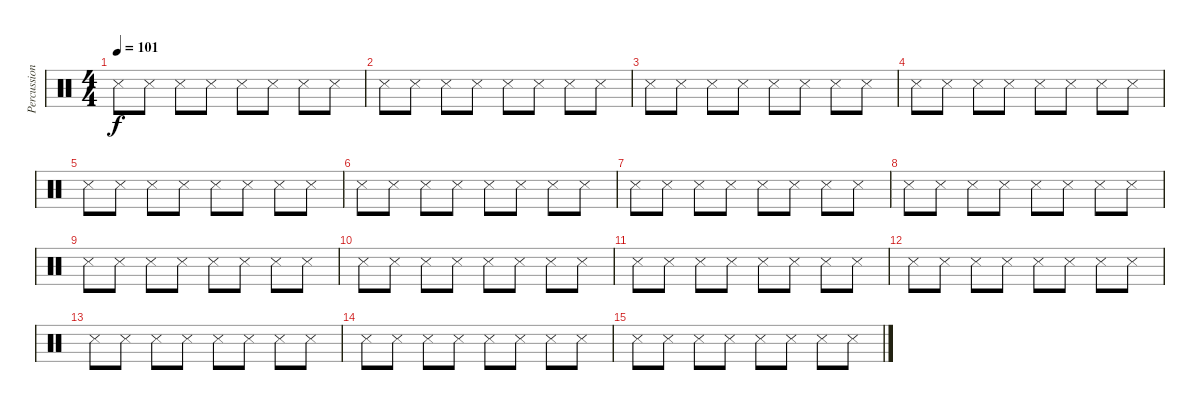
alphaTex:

\track ("Percussions" "Percussion") {instrument percussion}
\staff {score}
\articulation defaults
\ts (4 4)
\tempo 101
\clef neutral
\ks c "Metronome (hit)".8{dy f} "Metronome (hit)".8 "Metronome (hit)".8 "Metronome (hit)".8 "Metronome (hit)".8 "Metronome (hit)".8 "Metronome (hit)".8 "Metronome (hit)".8
|
"Metronome (hit)".8 "Metronome (hit)".8 "Metronome (hit)".8 "Metronome (hit)".8 "Metronome (hit)".8 "Metronome (hit)".8 "Metronome (hit)".8 "Metronome (hit)".8 |
"Metronome (hit)".8 "Metronome (hit)".8 "Metronome (hit)".8 "Metronome (hit)".8 "Metronome (hit)".8 "Metronome (hit)".8 "Metronome (hit)".8 "Metronome (hit)".8 |
"Metronome (hit)".8 "Metronome (hit)".8 "Metronome (hit)".8 "Metronome (hit)".8 "Metronome (hit)".8 "Metronome (hit)".8 "Metronome (hit)".8 "Metronome (hit)".8 |
"Metronome (hit)".8 "Metronome (hit)".8 "Metronome (hit)".8 "Metronome (hit)".8 "Metronome (hit)".8 "Metronome (hit)".8 "Metronome (hit)".8 "Metronome (hit)".8 |
"Metronome (hit)".8 "Metronome (hit)".8 "Metronome (hit)".8 "Metronome (hit)".8 "Metronome (hit)".8 "Metronome (hit)".8 "Metronome (hit)".8 "Metronome (hit)".8 |
"Metronome (hit)".8 "Metronome (hit)".8 "Metronome (hit)".8 "Metronome (hit)".8 "Metronome (hit)".8 "Metronome (hit)".8 "Metronome (hit)".8 "Metronome (hit)".8 |
"Metronome (hit)".8 "Metronome (hit)".8 "Metronome (hit)".8 "Metronome (hit)".8 "Metronome (hit)".8 "Metronome (hit)".8 "Metronome (hit)".8 "Metronome (hit)".8 |
"Metronome (hit)".8 "Metronome (hit)".8 "Metronome (hit)".8 "Metronome (hit)".8 "Metronome (hit)".8 "Metronome (hit)".8 "Metronome (hit)".8 "Metronome (hit)".8 |
"Metronome (hit)".8 "Metronome (hit)".8 "Metronome (hit)".8 "Metronome (hit)".8 "Metronome (hit)".8 "Metronome (hit)".8 "Metronome (hit)".8 "Metronome (hit)".8 |
"Metronome (hit)".8 "Metronome (hit)".8 "Metronome (hit)".8 "Metronome (hit)".8 "Metronome (hit)".8 "Metronome (hit)".8 "Metronome (hit)".8 "Metronome (hit)".8 |
"Metronome (hit)".8 "Metronome (hit)".8 "Metronome (hit)".8 "Metronome (hit)".8 "Metronome (hit)".8 "Metronome (hit)".8 "Metronome (hit)".8 "Metronome (hit)".8 |
"Metronome (hit)".8 "Metronome (hit)".8 "Metronome (hit)".8 "Metronome (hit)".8 "Metronome (hit)".8 "Metronome (hit)".8 "Metronome (hit)".8 "Metronome (hit)".8 |
"Metronome (hit)".8 "Metronome (hit)".8 "Metronome (hit)".8 "Metronome (hit)".8 "Metronome (hit)".8 "Metronome (hit)".8 "Metronome (hit)".8 "Metronome (hit)".8 |
"Metronome (hit)".8 "Metronome (hit)".8 "Metronome (hit)".8 "Metronome (hit)".8 "Metronome (hit)".8 "Metronome (hit)".8 "Metronome (hit)".8 "Metronome (hit)".8
